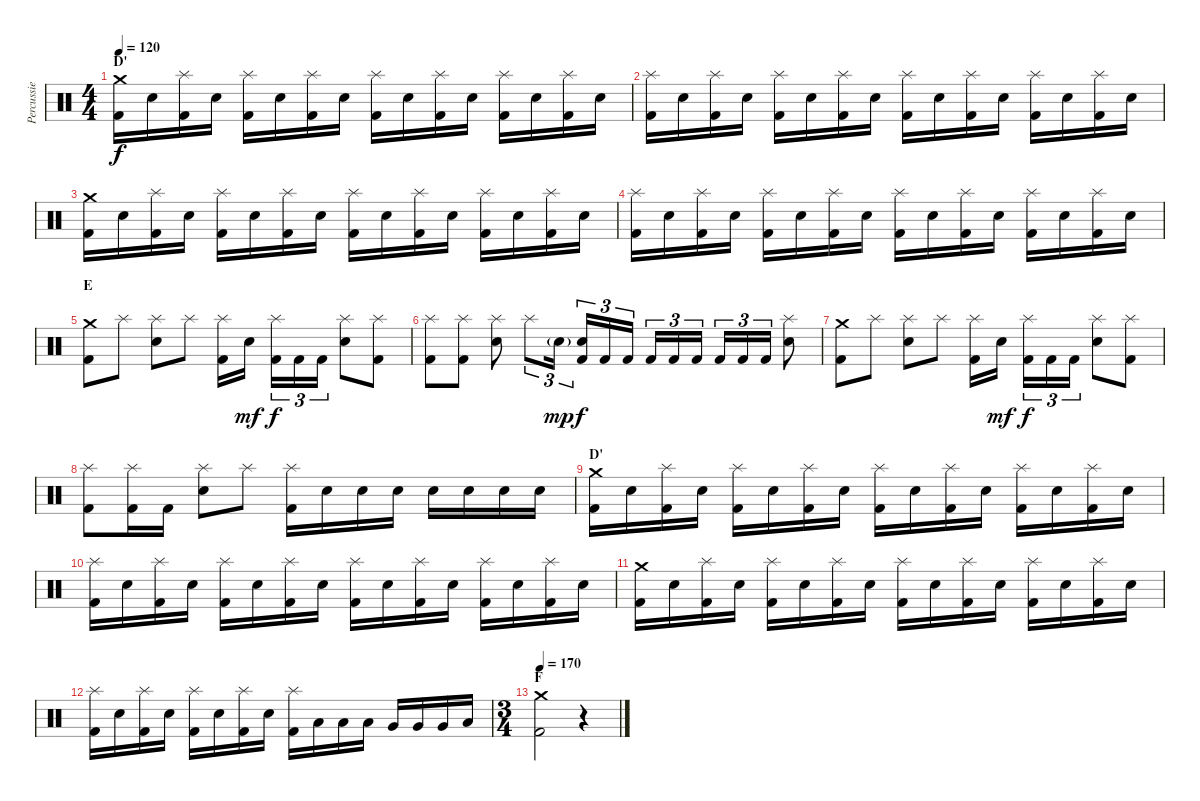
\track ("Percussie" "Percussie") {instrument percussion}
\staff {score}
\articulation defaults
\ts (4 4)
\section ("" "D'")
\tempo 120
\clef neutral
\ks c
("Crash medium (hit)" "Kick (hit) 2").16{dy f} "Electric Snare (hit)".16 ("Splash (hit)" "Kick (hit) 2").16 "Electric Snare (hit)".16 ("Splash (hit)" "Kick (hit) 2").16 "Electric Snare (hit)".16 ("Splash (hit)" "Kick (hit) 2").16 "Electric Snare (hit)".16 ("Splash (hit)" "Kick (hit) 2").16 "Electric Snare (hit)".16 ("Splash (hit)" "Kick (hit) 2").16 "Electric Snare (hit)".16 ("Splash (hit)" "Kick (hit) 2").16 "Electric Snare (hit)".16 ("Splash (hit)" "Kick (hit) 2").16 "Electric Snare (hit)".16 |
("Splash (hit)" "Kick (hit) 2").16 "Electric Snare (hit)".16 ("Splash (hit)" "Kick (hit) 2").16 "Electric Snare (hit)".16 ("Splash (hit)" "Kick (hit) 2").16 "Electric Snare (hit)".16 ("Splash (hit)" "Kick (hit) 2").16 "Electric Snare (hit)".16 ("Splash (hit)" "Kick (hit) 2").16 "Electric Snare (hit)".16 ("Splash (hit)" "Kick (hit) 2").16 "Electric Snare (hit)".16 ("Splash (hit)" "Kick (hit) 2").16 "Electric Snare (hit)".16 ("Splash (hit)" "Kick (hit) 2").16 "Electric Snare (hit)".16 |
("Crash medium (hit)" "Kick (hit) 2").16 "Electric Snare (hit)".16 ("Splash (hit)" "Kick (hit) 2").16 "Electric Snare (hit)".16 ("Splash (hit)" "Kick (hit) 2").16 "Electric Snare (hit)".16 ("Splash (hit)" "Kick (hit) 2").16 "Electric Snare (hit)".16 ("Splash (hit)" "Kick (hit) 2").16 "Electric Snare (hit)".16 ("Splash (hit)" "Kick (hit) 2").16 "Electric Snare (hit)".16 ("Splash (hit)" "Kick (hit) 2").16 "Electric Snare (hit)".16 ("Splash (hit)" "Kick (hit) 2").16 "Electric Snare (hit)".16 |
("Splash (hit)" "Kick (hit) 2").16 "Electric Snare (hit)".16 ("Splash (hit)" "Kick (hit) 2").16 "Electric Snare (hit)".16 ("Splash (hit)" "Kick (hit) 2").16 "Electric Snare (hit)".16 ("Splash (hit)" "Kick (hit) 2").16 "Electric Snare (hit)".16 ("Splash (hit)" "Kick (hit) 2").16 "Electric Snare (hit)".16 ("Splash (hit)" "Kick (hit) 2").16 "Electric Snare (hit)".16 ("Splash (hit)" "Kick (hit) 2").16 "Electric Snare (hit)".16 ("Splash (hit)" "Kick (hit) 2").16 "Electric Snare (hit)".16 |
\section ("" "E")
("Crash medium (hit)" "Kick (hit) 2").8 "Splash (hit)".8 ("Splash (hit)" "Electric Snare (hit)").8 "Splash (hit)".8 ("Splash (hit)" "Kick (hit) 2").16 "Electric Snare (hit)".16{dy mf} ("Splash (hit)" "Kick (hit) 2").16{tu (3 2) dy f} "Kick (hit) 2".16{tu (3 2)} "Kick (hit) 2".16{tu (3 2)} ("Splash (hit)" "Electric Snare (hit)").8 ("Splash (hit)" "Kick (hit) 2").8 |
("Splash (hit)" "Kick (hit) 2").8 ("Splash (hit)" "Kick (hit) 2").8 ("Splash (hit)" "Electric Snare (hit)").8 "Splash (hit)".8{tu (3 2)} "Electric Snare (hit)"{g}.16{tu (3 2) dy mp} ("Electric Snare (hit)" "Kick (hit) 2").16{tu (3 2) dy f} "Kick (hit) 2".16{tu (3 2)} "Kick (hit) 2".16{tu (3 2)} "Kick (hit) 2".16{tu (3 2)} "Kick (hit) 2".16{tu (3 2)} "Kick (hit) 2".16{tu (3 2)} "Kick (hit) 2".16{tu (3 2)} "Kick (hit) 2".16{tu (3 2)} "Kick (hit) 2".16{tu (3 2)} ("Splash (hit)" "Electric Snare (hit)").8 |
("Crash medium (hit)" "Kick (hit) 2").8 "Splash (hit)".8 ("Splash (hit)" "Electric Snare (hit)").8 "Splash (hit)".8 ("Splash (hit)" "Kick (hit) 2").16 "Electric Snare (hit)".16{dy mf} ("Splash (hit)" "Kick (hit) 2").16{tu (3 2) dy f} "Kick (hit) 2".16{tu (3 2)} "Kick (hit) 2".16{tu (3 2)} ("Splash (hit)" "Electric Snare (hit)").8 ("Splash (hit)" "Kick (hit) 2").8 |
("Splash (hit)" "Kick (hit) 2").8 ("Splash (hit)" "Kick (hit) 2").16 "Kick (hit) 2".16 ("Splash (hit)" "Electric Snare (hit)").8 "Splash (hit)".8 ("Splash (hit)" "Kick (hit) 2").16 "Electric Snare (hit)".16 "Electric Snare (hit)".16 "Electric Snare (hit)".16 "Electric Snare (hit)".16 "Electric Snare (hit)".16 "Electric Snare (hit)".16 "Electric Snare (hit)".16 |
\section ("" "D'")
("Crash medium (hit)" "Kick (hit) 2").16 "Electric Snare (hit)".16 ("Splash (hit)" "Kick (hit) 2").16 "Electric Snare (hit)".16 ("Splash (hit)" "Kick (hit) 2").16 "Electric Snare (hit)".16 ("Splash (hit)" "Kick (hit) 2").16 "Electric Snare (hit)".16 ("Splash (hit)" "Kick (hit) 2").16 "Electric Snare (hit)".16 ("Splash (hit)" "Kick (hit) 2").16 "Electric Snare (hit)".16 ("Splash (hit)" "Kick (hit) 2").16 "Electric Snare (hit)".16 ("Splash (hit)" "Kick (hit) 2").16 "Electric Snare (hit)".16 |
("Splash (hit)" "Kick (hit) 2").16 "Electric Snare (hit)".16 ("Splash (hit)" "Kick (hit) 2").16 "Electric Snare (hit)".16 ("Splash (hit)" "Kick (hit) 2").16 "Electric Snare (hit)".16 ("Splash (hit)" "Kick (hit) 2").16 "Electric Snare (hit)".16 ("Splash (hit)" "Kick (hit) 2").16 "Electric Snare (hit)".16 ("Splash (hit)" "Kick (hit) 2").16 "Electric Snare (hit)".16 ("Splash (hit)" "Kick (hit) 2").16 "Electric Snare (hit)".16 ("Splash (hit)" "Kick (hit) 2").16 "Electric Snare (hit)".16 |
("Crash medium (hit)" "Kick (hit) 2").16 "Electric Snare (hit)".16 ("Splash (hit)" "Kick (hit) 2").16 "Electric Snare (hit)".16 ("Splash (hit)" "Kick (hit) 2").16 "Electric Snare (hit)".16 ("Splash (hit)" "Kick (hit) 2").16 "Electric Snare (hit)".16 ("Splash (hit)" "Kick (hit) 2").16 "Electric Snare (hit)".16 ("Splash (hit)" "Kick (hit) 2").16 "Electric Snare (hit)".16 ("Splash (hit)" "Kick (hit) 2").16 "Electric Snare (hit)".16 ("Splash (hit)" "Kick (hit) 2").16 "Electric Snare (hit)".16 |
("Splash (hit)" "Kick (hit) 2").16 "Electric Snare (hit)".16 ("Splash (hit)" "Kick (hit) 2").16 "Electric Snare (hit)".16 ("Splash (hit)" "Kick (hit) 2").16 "Electric Snare (hit)".16 ("Splash (hit)" "Kick (hit) 2").16 "Electric Snare (hit)".16 ("Splash (hit)" "Kick (hit) 2").16 "Low Tom (hit)".16 "Low Tom (hit)".16 "Low Tom (hit)".16 "Very Low Tom (hit)".16 "Very Low Tom (hit)".16 "Very Low Tom (hit)".16 "Low Floor Tom (hit)".16 |
\ts (3 4)
\section ("" "F")
\tempo 170
("Crash medium (hit)" "Kick (hit) 2").2 r.4
